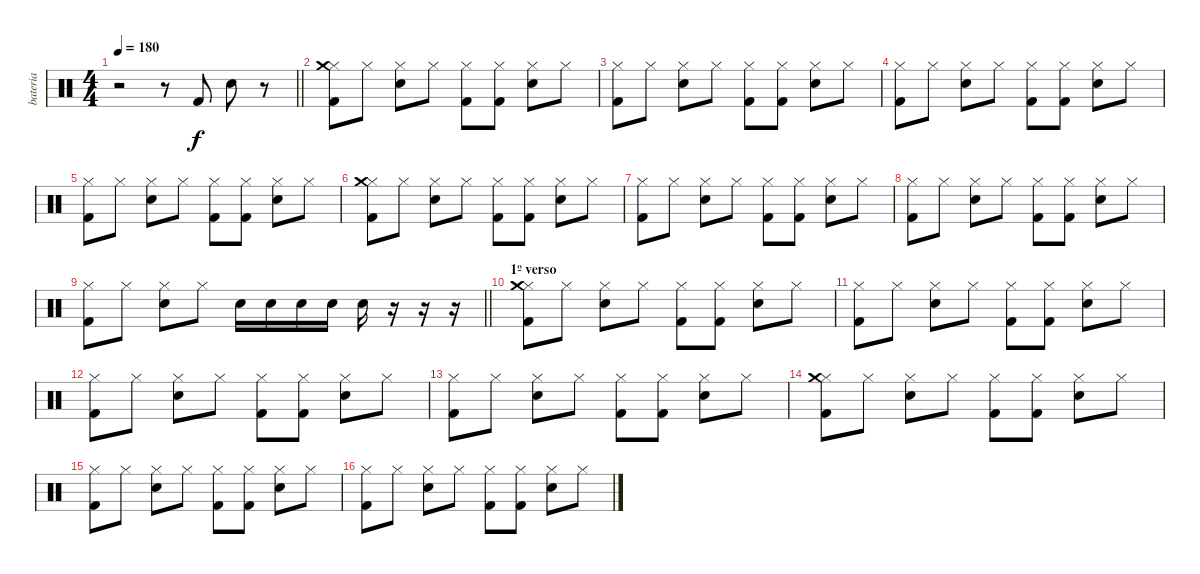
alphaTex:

\track ("bateria" "bateria") {instrument percussion}
\staff {score}
\articulation defaults
\ts (4 4)
\tempo 180
\clef neutral
\barLineRight lightlight
\ks c
r.2{dy f} r.8 "Kick (hit) 2".8 "Electric Snare (hit)".8 r.8 |
("Hi-Hat (closed)" "Kick (hit) 2" "Crash medium (hit)").8 "Hi-Hat (closed)".8 ("Hi-Hat (closed)" "Electric Snare (hit)").8 "Hi-Hat (closed)".8 ("Hi-Hat (closed)" "Kick (hit) 2").8 ("Hi-Hat (closed)" "Kick (hit) 2").8 ("Hi-Hat (closed)" "Electric Snare (hit)").8 "Hi-Hat (closed)".8 |
("Hi-Hat (closed)" "Kick (hit) 2").8 "Hi-Hat (closed)".8 ("Hi-Hat (closed)" "Electric Snare (hit)").8 "Hi-Hat (closed)".8 ("Hi-Hat (closed)" "Kick (hit) 2").8 ("Hi-Hat (closed)" "Kick (hit) 2").8 ("Hi-Hat (closed)" "Electric Snare (hit)").8 "Hi-Hat (closed)".8 |
("Hi-Hat (closed)" "Kick (hit) 2").8 "Hi-Hat (closed)".8 ("Hi-Hat (closed)" "Electric Snare (hit)").8 "Hi-Hat (closed)".8 ("Hi-Hat (closed)" "Kick (hit) 2").8 ("Hi-Hat (closed)" "Kick (hit) 2").8 ("Hi-Hat (closed)" "Electric Snare (hit)").8 "Hi-Hat (closed)".8 |
("Hi-Hat (closed)" "Kick (hit) 2").8 "Hi-Hat (closed)".8 ("Hi-Hat (closed)" "Electric Snare (hit)").8 "Hi-Hat (closed)".8 ("Hi-Hat (closed)" "Kick (hit) 2").8 ("Hi-Hat (closed)" "Kick (hit) 2").8 ("Hi-Hat (closed)" "Electric Snare (hit)").8 "Hi-Hat (closed)".8 |
("Hi-Hat (closed)" "Kick (hit) 2" "Crash medium (hit)").8 "Hi-Hat (closed)".8 ("Hi-Hat (closed)" "Electric Snare (hit)").8 "Hi-Hat (closed)".8 ("Hi-Hat (closed)" "Kick (hit) 2").8 ("Hi-Hat (closed)" "Kick (hit) 2").8 ("Hi-Hat (closed)" "Electric Snare (hit)").8 "Hi-Hat (closed)".8 |
("Hi-Hat (closed)" "Kick (hit) 2").8 "Hi-Hat (closed)".8 ("Hi-Hat (closed)" "Electric Snare (hit)").8 "Hi-Hat (closed)".8 ("Hi-Hat (closed)" "Kick (hit) 2").8 ("Hi-Hat (closed)" "Kick (hit) 2").8 ("Hi-Hat (closed)" "Electric Snare (hit)").8 "Hi-Hat (closed)".8 |
("Hi-Hat (closed)" "Kick (hit) 2").8 "Hi-Hat (closed)".8 ("Hi-Hat (closed)" "Electric Snare (hit)").8 "Hi-Hat (closed)".8 ("Hi-Hat (closed)" "Kick (hit) 2").8 ("Hi-Hat (closed)" "Kick (hit) 2").8 ("Hi-Hat (closed)" "Electric Snare (hit)").8 "Hi-Hat (closed)".8 |
\barLineRight lightlight
("Hi-Hat (closed)" "Kick (hit) 2").8 "Hi-Hat (closed)".8 ("Hi-Hat (closed)" "Electric Snare (hit)").8 "Hi-Hat (closed)".8 "Electric Snare (hit)".16 "Electric Snare (hit)".16 "Electric Snare (hit)".16 "Electric Snare (hit)".16 "Electric Snare (hit)".16 r.16 r.16 r.16 |
\section ("" "1º verso")
("Hi-Hat (closed)" "Kick (hit) 2" "Crash medium (hit)").8 "Hi-Hat (closed)".8 ("Hi-Hat (closed)" "Electric Snare (hit)").8 "Hi-Hat (closed)".8 ("Hi-Hat (closed)" "Kick (hit) 2").8 ("Hi-Hat (closed)" "Kick (hit) 2").8 ("Hi-Hat (closed)" "Electric Snare (hit)").8 "Hi-Hat (closed)".8 |
("Hi-Hat (closed)" "Kick (hit) 2").8 "Hi-Hat (closed)".8 ("Hi-Hat (closed)" "Electric Snare (hit)").8 "Hi-Hat (closed)".8 ("Hi-Hat (closed)" "Kick (hit) 2").8 ("Hi-Hat (closed)" "Kick (hit) 2").8 ("Hi-Hat (closed)" "Electric Snare (hit)").8 "Hi-Hat (closed)".8 |
("Hi-Hat (closed)" "Kick (hit) 2").8 "Hi-Hat (closed)".8 ("Hi-Hat (closed)" "Electric Snare (hit)").8 "Hi-Hat (closed)".8 ("Hi-Hat (closed)" "Kick (hit) 2").8 ("Hi-Hat (closed)" "Kick (hit) 2").8 ("Hi-Hat (closed)" "Electric Snare (hit)").8 "Hi-Hat (closed)".8 |
("Hi-Hat (closed)" "Kick (hit) 2").8 "Hi-Hat (closed)".8 ("Hi-Hat (closed)" "Electric Snare (hit)").8 "Hi-Hat (closed)".8 ("Hi-Hat (closed)" "Kick (hit) 2").8 ("Hi-Hat (closed)" "Kick (hit) 2").8 ("Hi-Hat (closed)" "Electric Snare (hit)").8 "Hi-Hat (closed)".8 |
("Hi-Hat (closed)" "Kick (hit) 2" "Crash medium (hit)").8 "Hi-Hat (closed)".8 ("Hi-Hat (closed)" "Electric Snare (hit)").8 "Hi-Hat (closed)".8 ("Hi-Hat (closed)" "Kick (hit) 2").8 ("Hi-Hat (closed)" "Kick (hit) 2").8 ("Hi-Hat (closed)" "Electric Snare (hit)").8 "Hi-Hat (closed)".8 |
("Hi-Hat (closed)" "Kick (hit) 2").8 "Hi-Hat (closed)".8 ("Hi-Hat (closed)" "Electric Snare (hit)").8 "Hi-Hat (closed)".8 ("Hi-Hat (closed)" "Kick (hit) 2").8 ("Hi-Hat (closed)" "Kick (hit) 2").8 ("Hi-Hat (closed)" "Electric Snare (hit)").8 "Hi-Hat (closed)".8 |
("Hi-Hat (closed)" "Kick (hit) 2").8 "Hi-Hat (closed)".8 ("Hi-Hat (closed)" "Electric Snare (hit)").8 "Hi-Hat (closed)".8 ("Hi-Hat (closed)" "Kick (hit) 2").8 ("Hi-Hat (closed)" "Kick (hit) 2").8 ("Hi-Hat (closed)" "Electric Snare (hit)").8 "Hi-Hat (closed)".8
